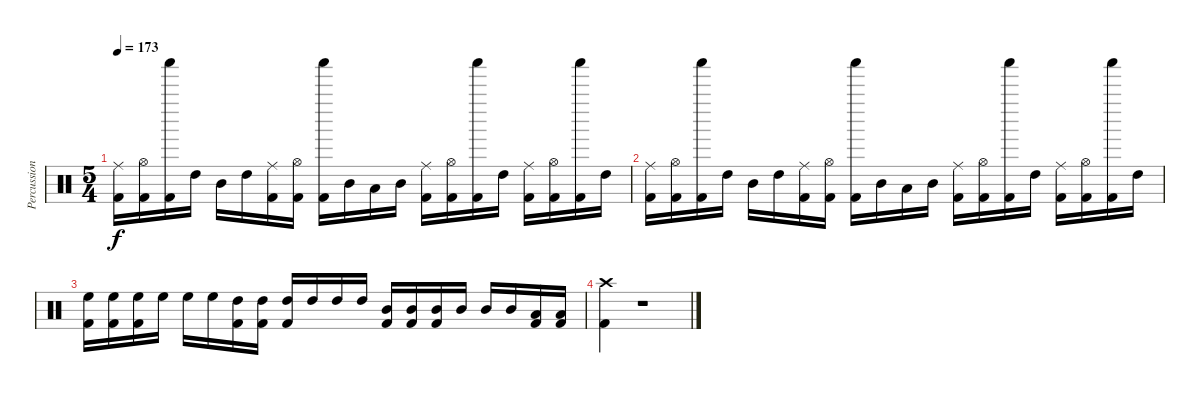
\track ("Percussion" "Percussion") {instrument percussion}
\staff {score}
\articulation defaults
\ts (5 4)
\tempo 173
\clef neutral
\ks c
("Ride (middle)" "Kick (hit) 2").16{dy f} ("Hi-Hat (open)" "Kick (hit) 2").16 ("Shaker (hit)" "Kick (hit) 2").16 "High Tom (hit)".16 "Mid Tom (hit)".16 "High Tom (hit)".16 ("Ride (middle)" "Kick (hit) 2").16 ("Hi-Hat (open)" "Kick (hit) 2").16 ("Shaker (hit)" "Kick (hit) 2").16 "Mid Tom (hit)".16 "Low Tom (hit)".16 "Mid Tom (hit)".16 ("Ride (middle)" "Kick (hit) 2").16 ("Hi-Hat (open)" "Kick (hit) 2").16 ("Shaker (hit)" "Kick (hit) 2").16 "High Tom (hit)".16 ("Ride (middle)" "Kick (hit) 2").16 ("Hi-Hat (open)" "Kick (hit) 2").16 ("Shaker (hit)" "Kick (hit) 2").16 "High Tom (hit)".16 |
("Ride (middle)" "Kick (hit) 2").16 ("Hi-Hat (open)" "Kick (hit) 2").16 ("Shaker (hit)" "Kick (hit) 2").16 "High Tom (hit)".16 "Mid Tom (hit)".16 "High Tom (hit)".16 ("Ride (middle)" "Kick (hit) 2").16 ("Hi-Hat (open)" "Kick (hit) 2").16 ("Shaker (hit)" "Kick (hit) 2").16 "Mid Tom (hit)".16 "Low Tom (hit)".16 "Mid Tom (hit)".16 ("Ride (middle)" "Kick (hit) 2").16 ("Hi-Hat (open)" "Kick (hit) 2").16 ("Shaker (hit)" "Kick (hit) 2").16 "High Tom (hit)".16 ("Ride (middle)" "Kick (hit) 2").16 ("Hi-Hat (open)" "Kick (hit) 2").16 ("Shaker (hit)" "Kick (hit) 2").16 "High Tom (hit)".16 |
("High Floor Tom (hit)" "Kick (hit) 2").16 ("High Floor Tom (hit)" "Kick (hit) 2").16 ("High Floor Tom (hit)" "Kick (hit) 2").16 "High Floor Tom (hit)".16 "High Floor Tom (hit)".16 "High Floor Tom (hit)".16 ("High Tom (hit)" "Kick (hit) 2").16 ("High Tom (hit)" "Kick (hit) 2").16 ("High Tom (hit)" "Kick (hit) 2").16 "High Tom (hit)".16 "High Tom (hit)".16 "High Tom (hit)".16 ("Mid Tom (hit)" "Kick (hit) 2").16 ("Mid Tom (hit)" "Kick (hit) 2").16 ("Mid Tom (hit)" "Kick (hit) 2").16 "Mid Tom (hit)".16 "Mid Tom (hit)".16 "Mid Tom (hit)".16 ("Low Tom (hit)" "Kick (hit) 2").16 ("Low Tom (hit)" "Kick (hit) 2").16 |
("Crash high (hit)" "Kick (hit) 2").4 r.1
